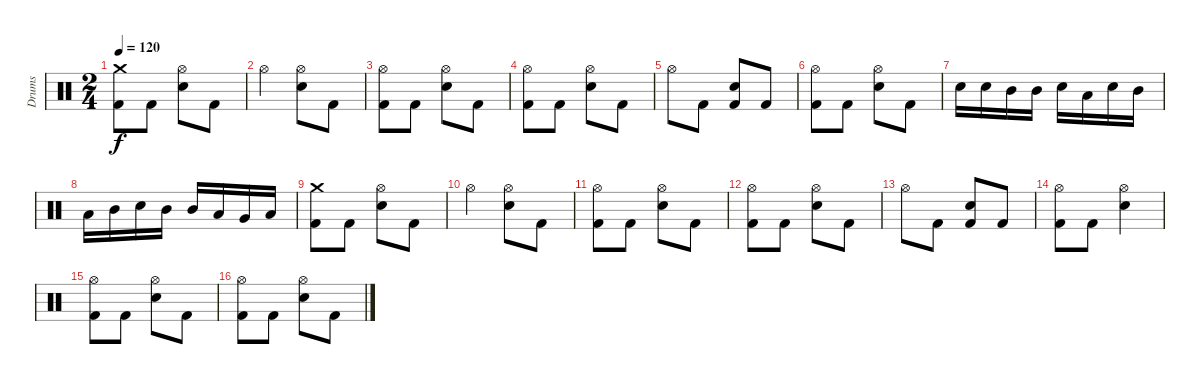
\track ("Drums" "Drums") {instrument percussion}
\staff {score}
\articulation defaults
\ts (2 4)
\tempo 120
\clef neutral
\ks c
("Crash medium (hit)" "Kick (hit) 2").8{dy f} "Kick (hit) 2".8 ("Electric Snare (hit)" "Hi-Hat (open)").8 "Kick (hit) 2".8 |
"Hi-Hat (open)".4 ("Electric Snare (hit)" "Hi-Hat (open)").8 "Kick (hit) 2".8 |
("Hi-Hat (open)" "Kick (hit) 2").8 "Kick (hit) 2".8 ("Electric Snare (hit)" "Hi-Hat (open)").8 "Kick (hit) 2".8 |
("Hi-Hat (open)" "Kick (hit) 2").8 "Kick (hit) 2".8 ("Electric Snare (hit)" "Hi-Hat (open)").8 "Kick (hit) 2".8 |
"Hi-Hat (open)".8 "Kick (hit) 2".8 ("Electric Snare (hit)" "Kick (hit) 2").8 "Kick (hit) 2".8 |
("Hi-Hat (open)" "Kick (hit) 2").8 "Kick (hit) 2".8 ("Electric Snare (hit)" "Hi-Hat (open)").8 "Kick (hit) 2".8 |
"Electric Snare (hit)".16 "Electric Snare (hit)".16 "Mid Tom (hit)".16 "Mid Tom (hit)".16 "Electric Snare (hit)".16 "Low Tom (hit)".16 "Electric Snare (hit)".16 "Mid Tom (hit)".16 |
"Low Tom (hit)".16 "Mid Tom (hit)".16 "Electric Snare (hit)".16 "Mid Tom (hit)".16 "Mid Tom (hit)".16 "Low Tom (hit)".16 "Very Low Tom (hit)".16 "Low Floor Tom (hit)".16 |
("Crash medium (hit)" "Kick (hit) 2").8 "Kick (hit) 2".8 ("Electric Snare (hit)" "Hi-Hat (open)").8 "Kick (hit) 2".8 |
"Hi-Hat (open)".4 ("Electric Snare (hit)" "Hi-Hat (open)").8 "Kick (hit) 2".8 |
("Hi-Hat (open)" "Kick (hit) 2").8 "Kick (hit) 2".8 ("Electric Snare (hit)" "Hi-Hat (open)").8 "Kick (hit) 2".8 |
("Hi-Hat (open)" "Kick (hit) 2").8 "Kick (hit) 2".8 ("Electric Snare (hit)" "Hi-Hat (open)").8 "Kick (hit) 2".8 |
"Hi-Hat (open)".8 "Kick (hit) 2".8 ("Electric Snare (hit)" "Kick (hit) 2").8 "Kick (hit) 2".8 |
("Hi-Hat (open)" "Kick (hit) 2").8 "Kick (hit) 2".8 ("Electric Snare (hit)" "Hi-Hat (open)").4 |
("Hi-Hat (open)" "Kick (hit) 2").8 "Kick (hit) 2".8 ("Electric Snare (hit)" "Hi-Hat (open)").8 "Kick (hit) 2".8 |
("Hi-Hat (open)" "Kick (hit) 2").8 "Kick (hit) 2".8 ("Electric Snare (hit)" "Hi-Hat (open)").8 "Kick (hit) 2".8
